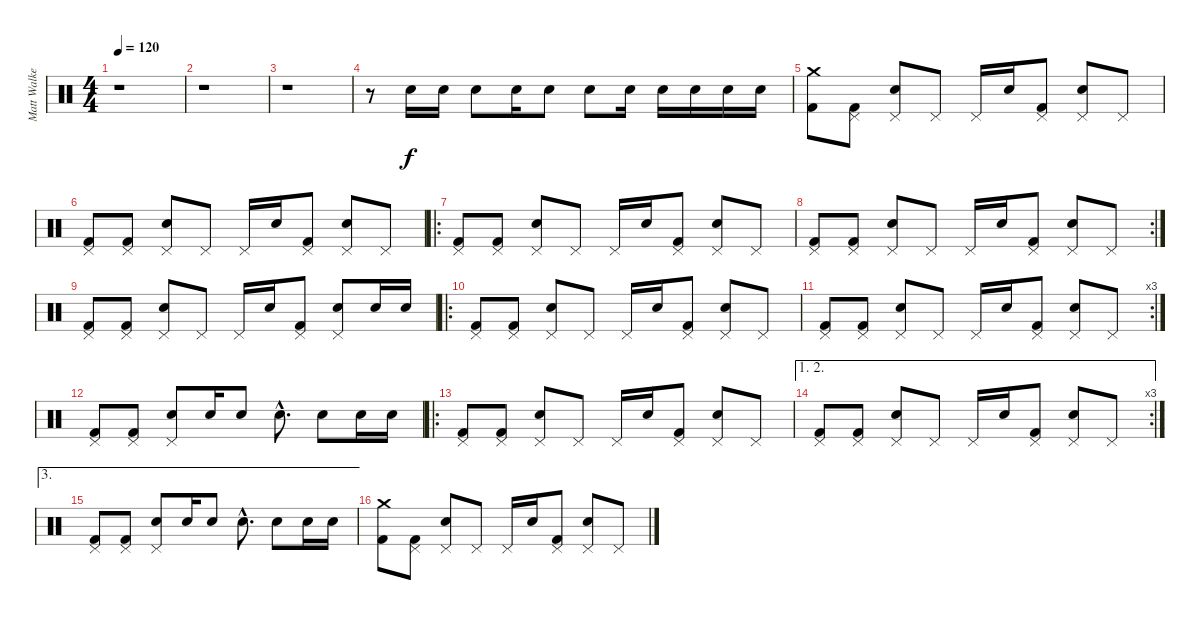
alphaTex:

\track ("Matt Walker - Drums" "Matt Walke") {instrument percussion}
\staff {score}
\articulation defaults
\ts (4 4)
\tempo 120
\clef neutral
\ks c
r.1{dy f} |
r.1 |
r.1 |
r.8 "Electric Snare (hit)".16 "Electric Snare (hit)".16 "Electric Snare (hit)".8 "Electric Snare (hit)".16 "Electric Snare (hit)".8 "Electric Snare (hit)".8 "Electric Snare (hit)".16 "Electric Snare (hit)".16 "Electric Snare (hit)".16 "Electric Snare (hit)".16 "Electric Snare (hit)".16 |
("Crash medium (hit)" "Kick (hit) 2").8 ("Pedal Hi-Hat (hit)" "Kick (hit) 2").8 ("Pedal Hi-Hat (hit)" "Electric Snare (hit)").8 "Pedal Hi-Hat (hit)".8 "Pedal Hi-Hat (hit)".16 "Electric Snare (hit)".16 ("Pedal Hi-Hat (hit)" "Kick (hit) 2").8 ("Pedal Hi-Hat (hit)" "Electric Snare (hit)").8 "Pedal Hi-Hat (hit)".8 |
("Pedal Hi-Hat (hit)" "Kick (hit) 2").8 ("Pedal Hi-Hat (hit)" "Kick (hit) 2").8 ("Pedal Hi-Hat (hit)" "Electric Snare (hit)").8 "Pedal Hi-Hat (hit)".8 "Pedal Hi-Hat (hit)".16 "Electric Snare (hit)".16 ("Pedal Hi-Hat (hit)" "Kick (hit) 2").8 ("Pedal Hi-Hat (hit)" "Electric Snare (hit)").8 "Pedal Hi-Hat (hit)".8 |
\ro
("Pedal Hi-Hat (hit)" "Kick (hit) 2").8 ("Pedal Hi-Hat (hit)" "Kick (hit) 2").8 ("Pedal Hi-Hat (hit)" "Electric Snare (hit)").8 "Pedal Hi-Hat (hit)".8 "Pedal Hi-Hat (hit)".16 "Electric Snare (hit)".16 ("Pedal Hi-Hat (hit)" "Kick (hit) 2").8 ("Pedal Hi-Hat (hit)" "Electric Snare (hit)").8 "Pedal Hi-Hat (hit)".8 |
\rc 2
("Pedal Hi-Hat (hit)" "Kick (hit) 2").8 ("Pedal Hi-Hat (hit)" "Kick (hit) 2").8 ("Pedal Hi-Hat (hit)" "Electric Snare (hit)").8 "Pedal Hi-Hat (hit)".8 "Pedal Hi-Hat (hit)".16 "Electric Snare (hit)".16 ("Pedal Hi-Hat (hit)" "Kick (hit) 2").8 ("Pedal Hi-Hat (hit)" "Electric Snare (hit)").8 "Pedal Hi-Hat (hit)".8 |
("Pedal Hi-Hat (hit)" "Kick (hit) 2").8 ("Pedal Hi-Hat (hit)" "Kick (hit) 2").8 ("Pedal Hi-Hat (hit)" "Electric Snare (hit)").8 "Pedal Hi-Hat (hit)".8 "Pedal Hi-Hat (hit)".16 "Electric Snare (hit)".16 ("Pedal Hi-Hat (hit)" "Kick (hit) 2").8 ("Pedal Hi-Hat (hit)" "Electric Snare (hit)").8 "Electric Snare (hit)".16 "Electric Snare (hit)".16 |
\ro
("Pedal Hi-Hat (hit)" "Kick (hit) 2").8 ("Pedal Hi-Hat (hit)" "Kick (hit) 2").8 ("Pedal Hi-Hat (hit)" "Electric Snare (hit)").8 "Pedal Hi-Hat (hit)".8 "Pedal Hi-Hat (hit)".16 "Electric Snare (hit)".16 ("Pedal Hi-Hat (hit)" "Kick (hit) 2").8 ("Pedal Hi-Hat (hit)" "Electric Snare (hit)").8 "Pedal Hi-Hat (hit)".8 |
\rc 3
("Pedal Hi-Hat (hit)" "Kick (hit) 2").8 ("Pedal Hi-Hat (hit)" "Kick (hit) 2").8 ("Pedal Hi-Hat (hit)" "Electric Snare (hit)").8 "Pedal Hi-Hat (hit)".8 "Pedal Hi-Hat (hit)".16 "Electric Snare (hit)".16 ("Pedal Hi-Hat (hit)" "Kick (hit) 2").8 ("Pedal Hi-Hat (hit)" "Electric Snare (hit)").8 "Pedal Hi-Hat (hit)".8 |
("Pedal Hi-Hat (hit)" "Kick (hit) 2").8 ("Pedal Hi-Hat (hit)" "Kick (hit) 2").8 ("Pedal Hi-Hat (hit)" "Electric Snare (hit)").8 "Electric Snare (hit)".16 "Electric Snare (hit)".8 "Electric Snare (hit)"{hac}.8{d} "Electric Snare (hit)".8 "Electric Snare (hit)".16 "Electric Snare (hit)".16 |
\ro
("Pedal Hi-Hat (hit)" "Kick (hit) 2").8 ("Pedal Hi-Hat (hit)" "Kick (hit) 2").8 ("Pedal Hi-Hat (hit)" "Electric Snare (hit)").8 "Pedal Hi-Hat (hit)".8 "Pedal Hi-Hat (hit)".16 "Electric Snare (hit)".16 ("Pedal Hi-Hat (hit)" "Kick (hit) 2").8 ("Pedal Hi-Hat (hit)" "Electric Snare (hit)").8 "Pedal Hi-Hat (hit)".8 |
\ae (1 2)
\rc 3
("Pedal Hi-Hat (hit)" "Kick (hit) 2").8 ("Pedal Hi-Hat (hit)" "Kick (hit) 2").8 ("Pedal Hi-Hat (hit)" "Electric Snare (hit)").8 "Pedal Hi-Hat (hit)".8 "Pedal Hi-Hat (hit)".16 "Electric Snare (hit)".16 ("Pedal Hi-Hat (hit)" "Kick (hit) 2").8 ("Pedal Hi-Hat (hit)" "Electric Snare (hit)").8 "Pedal Hi-Hat (hit)".8 |
\ae 3
("Pedal Hi-Hat (hit)" "Kick (hit) 2").8 ("Pedal Hi-Hat (hit)" "Kick (hit) 2").8 ("Pedal Hi-Hat (hit)" "Electric Snare (hit)").8 "Electric Snare (hit)".16 "Electric Snare (hit)".8 "Electric Snare (hit)"{hac}.8{d} "Electric Snare (hit)".8 "Electric Snare (hit)".16 "Electric Snare (hit)".16 |
("Crash medium (hit)" "Kick (hit) 2").8 ("Pedal Hi-Hat (hit)" "Kick (hit) 2").8 ("Pedal Hi-Hat (hit)" "Electric Snare (hit)").8 "Pedal Hi-Hat (hit)".8 "Pedal Hi-Hat (hit)".16 "Electric Snare (hit)".16 ("Pedal Hi-Hat (hit)" "Kick (hit) 2").8 ("Pedal Hi-Hat (hit)" "Electric Snare (hit)").8 "Pedal Hi-Hat (hit)".8
